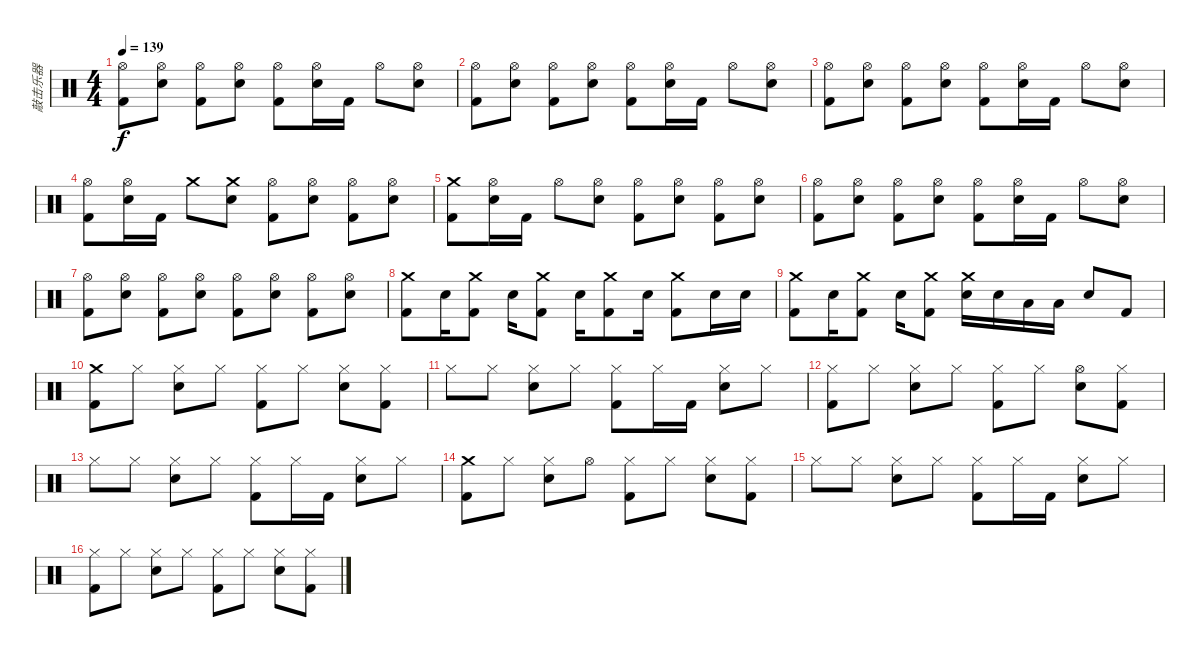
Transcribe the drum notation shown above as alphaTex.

\track ("敲击乐器" "敲击乐器") {instrument percussion}
\staff {score}
\articulation defaults
\ts (4 4)
\tempo 139
\clef neutral
\ks c
("Hi-Hat (open)" "Kick (hit) 2").8{dy f} ("Hi-Hat (open)" "Electric Snare (hit)").8 ("Hi-Hat (open)" "Kick (hit) 2").8 ("Hi-Hat (open)" "Electric Snare (hit)").8 ("Hi-Hat (open)" "Kick (hit) 2").8 ("Hi-Hat (open)" "Electric Snare (hit)").16 "Kick (hit) 2".16 "Hi-Hat (open)".8 ("Hi-Hat (open)" "Electric Snare (hit)").8 |
("Hi-Hat (open)" "Kick (hit) 2").8 ("Hi-Hat (open)" "Electric Snare (hit)").8 ("Hi-Hat (open)" "Kick (hit) 2").8 ("Hi-Hat (open)" "Electric Snare (hit)").8 ("Hi-Hat (open)" "Kick (hit) 2").8 ("Hi-Hat (open)" "Electric Snare (hit)").16 "Kick (hit) 2".16 "Hi-Hat (open)".8 ("Hi-Hat (open)" "Electric Snare (hit)").8 |
("Hi-Hat (open)" "Kick (hit) 2").8 ("Hi-Hat (open)" "Electric Snare (hit)").8 ("Hi-Hat (open)" "Kick (hit) 2").8 ("Hi-Hat (open)" "Electric Snare (hit)").8 ("Hi-Hat (open)" "Kick (hit) 2").8 ("Hi-Hat (open)" "Electric Snare (hit)").16 "Kick (hit) 2".16 "Hi-Hat (open)".8 ("Hi-Hat (open)" "Electric Snare (hit)").8 |
("Hi-Hat (open)" "Kick (hit) 2").8 ("Hi-Hat (open)" "Electric Snare (hit)").16 "Kick (hit) 2".16 "Crash medium (hit)".8 ("Crash medium (hit)" "Electric Snare (hit)").8 ("Hi-Hat (open)" "Kick (hit) 2").8 ("Hi-Hat (open)" "Electric Snare (hit)").8 ("Hi-Hat (open)" "Kick (hit) 2").8 ("Hi-Hat (open)" "Electric Snare (hit)").8 |
("Crash medium (hit)" "Kick (hit) 2").8 ("Hi-Hat (open)" "Electric Snare (hit)").16 "Kick (hit) 2".16 "Hi-Hat (open)".8 ("Hi-Hat (open)" "Electric Snare (hit)").8 ("Hi-Hat (open)" "Kick (hit) 2").8 ("Hi-Hat (open)" "Electric Snare (hit)").8 ("Hi-Hat (open)" "Kick (hit) 2").8 ("Hi-Hat (open)" "Electric Snare (hit)").8 |
("Hi-Hat (open)" "Kick (hit) 2").8 ("Hi-Hat (open)" "Electric Snare (hit)").8 ("Hi-Hat (open)" "Kick (hit) 2").8 ("Hi-Hat (open)" "Electric Snare (hit)").8 ("Hi-Hat (open)" "Kick (hit) 2").8 ("Hi-Hat (open)" "Electric Snare (hit)").16 "Kick (hit) 2".16 "Hi-Hat (open)".8 ("Hi-Hat (open)" "Electric Snare (hit)").8 |
("Hi-Hat (open)" "Kick (hit) 2").8 ("Hi-Hat (open)" "Electric Snare (hit)").8 ("Hi-Hat (open)" "Kick (hit) 2").8 ("Hi-Hat (open)" "Electric Snare (hit)").8 ("Hi-Hat (open)" "Kick (hit) 2").8 ("Hi-Hat (open)" "Electric Snare (hit)").8 ("Hi-Hat (open)" "Kick (hit) 2").8 ("Hi-Hat (open)" "Electric Snare (hit)").8 |
("Crash medium (hit)" "Kick (hit) 2").8 "Electric Snare (hit)".16 ("Crash medium (hit)" "Kick (hit) 2").8 "Electric Snare (hit)".16 ("Crash medium (hit)" "Kick (hit) 2").8 "Electric Snare (hit)".16 ("Crash medium (hit)" "Kick (hit) 2").8 "Electric Snare (hit)".16 ("Crash medium (hit)" "Kick (hit) 2").8 "Electric Snare (hit)".16 "Electric Snare (hit)".16 |
("Crash medium (hit)" "Kick (hit) 2").8 "Electric Snare (hit)".16 ("Crash medium (hit)" "Kick (hit) 2").8 "Electric Snare (hit)".16 ("Crash medium (hit)" "Kick (hit) 2").8 ("Crash medium (hit)" "Electric Snare (hit)").16 "Electric Snare (hit)".16 "Low Tom (hit)".16 "Low Tom (hit)".16 "Electric Snare (hit)".8 "Kick (hit) 2".8 |
("Crash medium (hit)" "Kick (hit) 2").8 "Hi-Hat (closed)".8 ("Hi-Hat (closed)" "Electric Snare (hit)").8 "Hi-Hat (closed)".8 ("Hi-Hat (closed)" "Kick (hit) 2").8 "Hi-Hat (closed)".8 ("Hi-Hat (closed)" "Electric Snare (hit)").8 ("Hi-Hat (closed)" "Kick (hit) 2").8 |
"Hi-Hat (closed)".8 "Hi-Hat (closed)".8 ("Hi-Hat (closed)" "Electric Snare (hit)").8 "Hi-Hat (closed)".8 ("Hi-Hat (closed)" "Kick (hit) 2").8 "Hi-Hat (closed)".16 "Kick (hit) 2".16 ("Hi-Hat (closed)" "Electric Snare (hit)").8 "Hi-Hat (closed)".8 |
("Hi-Hat (closed)" "Kick (hit) 2").8 "Hi-Hat (closed)".8 ("Hi-Hat (closed)" "Electric Snare (hit)").8 "Hi-Hat (closed)".8 ("Hi-Hat (closed)" "Kick (hit) 2").8 "Hi-Hat (closed)".8 ("Hi-Hat (open)" "Electric Snare (hit)").8 ("Hi-Hat (closed)" "Kick (hit) 2").8 |
"Hi-Hat (closed)".8 "Hi-Hat (closed)".8 ("Hi-Hat (closed)" "Electric Snare (hit)").8 "Hi-Hat (closed)".8 ("Hi-Hat (closed)" "Kick (hit) 2").8 "Hi-Hat (closed)".16 "Kick (hit) 2".16 ("Hi-Hat (closed)" "Electric Snare (hit)").8 "Hi-Hat (closed)".8 |
("Crash medium (hit)" "Kick (hit) 2").8 "Hi-Hat (closed)".8 ("Hi-Hat (closed)" "Electric Snare (hit)").8 "Hi-Hat (open)".8 ("Hi-Hat (closed)" "Kick (hit) 2").8 "Hi-Hat (closed)".8 ("Hi-Hat (closed)" "Electric Snare (hit)").8 ("Hi-Hat (closed)" "Kick (hit) 2").8 |
"Hi-Hat (closed)".8 "Hi-Hat (closed)".8 ("Hi-Hat (closed)" "Electric Snare (hit)").8 "Hi-Hat (closed)".8 ("Hi-Hat (closed)" "Kick (hit) 2").8 "Hi-Hat (closed)".16 "Kick (hit) 2".16 ("Hi-Hat (closed)" "Electric Snare (hit)").8 "Hi-Hat (closed)".8 |
("Hi-Hat (closed)" "Kick (hit) 2").8 "Hi-Hat (closed)".8 ("Hi-Hat (closed)" "Electric Snare (hit)").8 "Hi-Hat (closed)".8 ("Hi-Hat (closed)" "Kick (hit) 2").8 "Hi-Hat (closed)".8 ("Hi-Hat (closed)" "Electric Snare (hit)").8 ("Hi-Hat (closed)" "Kick (hit) 2").8
